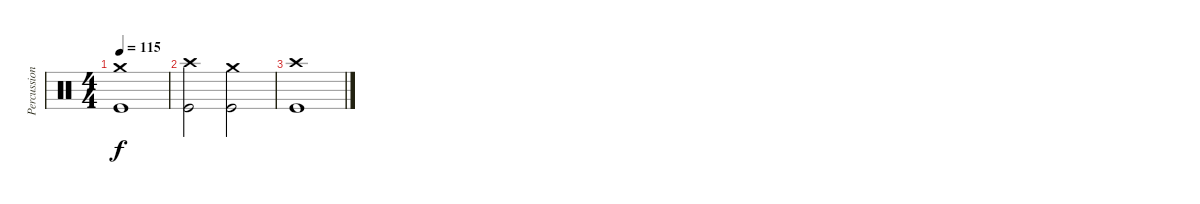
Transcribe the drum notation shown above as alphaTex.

\track ("Percussion" "Percussion") {instrument percussion}
\staff {score}
\articulation defaults
\ts (4 4)
\tempo 115
\clef neutral
\ks c
("Crash medium (hit)" "Kick (hit)").1{dy f} |
("Crash high (hit)" "Kick (hit)").2 ("Crash medium (hit)" "Kick (hit)").2 |
("Crash high (hit)" "Kick (hit)").1
